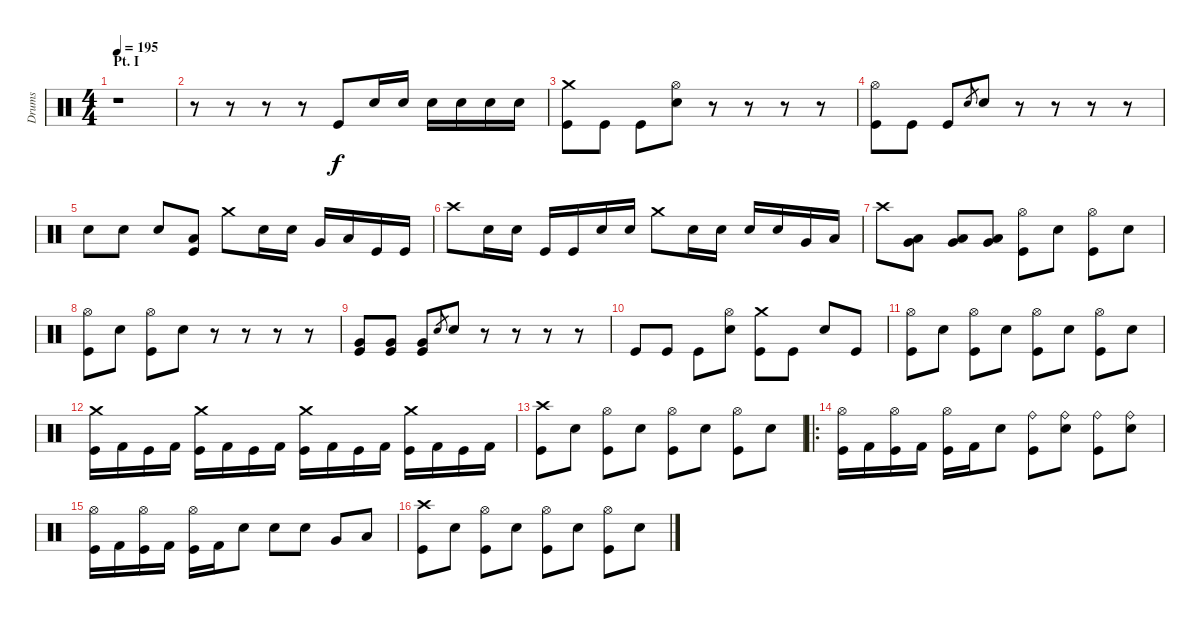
\track ("Drums" "Drums") {instrument percussion}
\staff {score}
\articulation defaults
\ts (4 4)
\section ("" "Pt. I")
\tempo 195
\clef neutral
\ks c
r.1{dy f} |
r.8 r.8 r.8 r.8 "Kick (hit)".8 "Electric Snare (hit)".16 "Electric Snare (hit)".16 "Electric Snare (hit)".16 "Electric Snare (hit)".16 "Electric Snare (hit)".16 "Electric Snare (hit)".16 |
("Crash medium (hit)" "Kick (hit)").8 "Kick (hit)".8 "Kick (hit)".8 ("Hi-Hat (open)" "Electric Snare (hit)").8 r.8 r.8 r.8 r.8 |
("Hi-Hat (open)" "Kick (hit)").8 "Kick (hit)".8 "Kick (hit)".8 "Electric Snare (hit)".8{gr} "Electric Snare (hit)".8 r.8 r.8 r.8 r.8 |
"Electric Snare (hit)".8 "Electric Snare (hit)".8 "Electric Snare (hit)".8 ("Low Tom (hit)" "Kick (hit)").8 "Crash medium (hit)".8 "Electric Snare (hit)".16 "Electric Snare (hit)".16 "Very Low Tom (hit)".16 "Low Floor Tom (hit)".16 "Kick (hit)".16 "Kick (hit)".16 |
"Crash high (hit)".8 "Electric Snare (hit)".16 "Electric Snare (hit)".16 "Kick (hit)".16 "Kick (hit)".16 "Electric Snare (hit)".16 "Electric Snare (hit)".16 "Crash medium (hit)".8 "Electric Snare (hit)".16 "Electric Snare (hit)".16 "Electric Snare (hit)".16 "Electric Snare (hit)".16 "Very Low Tom (hit)".16 "Low Floor Tom (hit)".16 |
"Crash high (hit)".8 ("Very Low Tom (hit)" "Low Floor Tom (hit)").8 ("Very Low Tom (hit)" "Low Floor Tom (hit)").8 ("Very Low Tom (hit)" "Low Floor Tom (hit)").8 ("Hi-Hat (open)" "Kick (hit)").8 "Electric Snare (hit)".8 ("Hi-Hat (open)" "Kick (hit)").8 "Electric Snare (hit)".8 |
("Hi-Hat (open)" "Kick (hit)").8 "Electric Snare (hit)".8 ("Hi-Hat (open)" "Kick (hit)").8 "Electric Snare (hit)".8 r.8 r.8 r.8 r.8 |
("Very Low Tom (hit)" "Kick (hit)").8 ("Very Low Tom (hit)" "Kick (hit)").8 ("Very Low Tom (hit)" "Kick (hit)").8 "Electric Snare (hit)".8{gr} "Electric Snare (hit)".8 r.8 r.8 r.8 r.8 |
"Kick (hit)".8 "Kick (hit)".8 "Kick (hit)".8 ("Hi-Hat (open)" "Electric Snare (hit)").8 ("Crash medium (hit)" "Kick (hit)").8 "Kick (hit)".8 "Electric Snare (hit)".8 "Kick (hit)".8 |
("Hi-Hat (open)" "Kick (hit)").8 "Electric Snare (hit)".8 ("Hi-Hat (open)" "Kick (hit)").8 "Electric Snare (hit)".8 ("Hi-Hat (open)" "Kick (hit)").8 "Electric Snare (hit)".8 ("Hi-Hat (open)" "Kick (hit)").8 "Electric Snare (hit)".8 |
("Crash medium (hit)" "Kick (hit)").16 "Kick (hit) 2".16 "Kick (hit)".16 "Kick (hit) 2".16 ("Crash medium (hit)" "Kick (hit)").16 "Kick (hit) 2".16 "Kick (hit)".16 "Kick (hit) 2".16 ("Crash medium (hit)" "Kick (hit)").16 "Kick (hit) 2".16 "Kick (hit)".16 "Kick (hit) 2".16 ("Crash medium (hit)" "Kick (hit)").16 "Kick (hit) 2".16 "Kick (hit)".16 "Kick (hit) 2".16 |
("Crash high (hit)" "Kick (hit)").8 "Electric Snare (hit)".8 ("Hi-Hat (open)" "Kick (hit)").8 "Electric Snare (hit)".8 ("Hi-Hat (open)" "Kick (hit)").8 "Electric Snare (hit)".8 ("Hi-Hat (open)" "Kick (hit)").8 "Electric Snare (hit)".8 |
\ro
("Hi-Hat (open)" "Kick (hit)").16 "Kick (hit) 2".16 ("Hi-Hat (open)" "Kick (hit)").16 "Kick (hit) 2".16 ("Hi-Hat (open)" "Kick (hit)").16 "Kick (hit) 2".16 "Electric Snare (hit)".8 ("Ride (bell)" "Kick (hit)").8 ("Ride (bell)" "Electric Snare (hit)").8 ("Ride (bell)" "Kick (hit)").8 ("Ride (bell)" "Electric Snare (hit)").8 |
("Hi-Hat (open)" "Kick (hit)").16 "Kick (hit) 2".16 ("Hi-Hat (open)" "Kick (hit)").16 "Kick (hit) 2".16 ("Hi-Hat (open)" "Kick (hit)").16 "Kick (hit) 2".16 "Electric Snare (hit)".8 "Electric Snare (hit)".8 "Electric Snare (hit)".8 "Very Low Tom (hit)".8 "Low Floor Tom (hit)".8 |
("Crash high (hit)" "Kick (hit)").8 "Electric Snare (hit)".8 ("Hi-Hat (open)" "Kick (hit)").8 "Electric Snare (hit)".8 ("Hi-Hat (open)" "Kick (hit)").8 "Electric Snare (hit)".8 ("Hi-Hat (open)" "Kick (hit)").8 "Electric Snare (hit)".8
